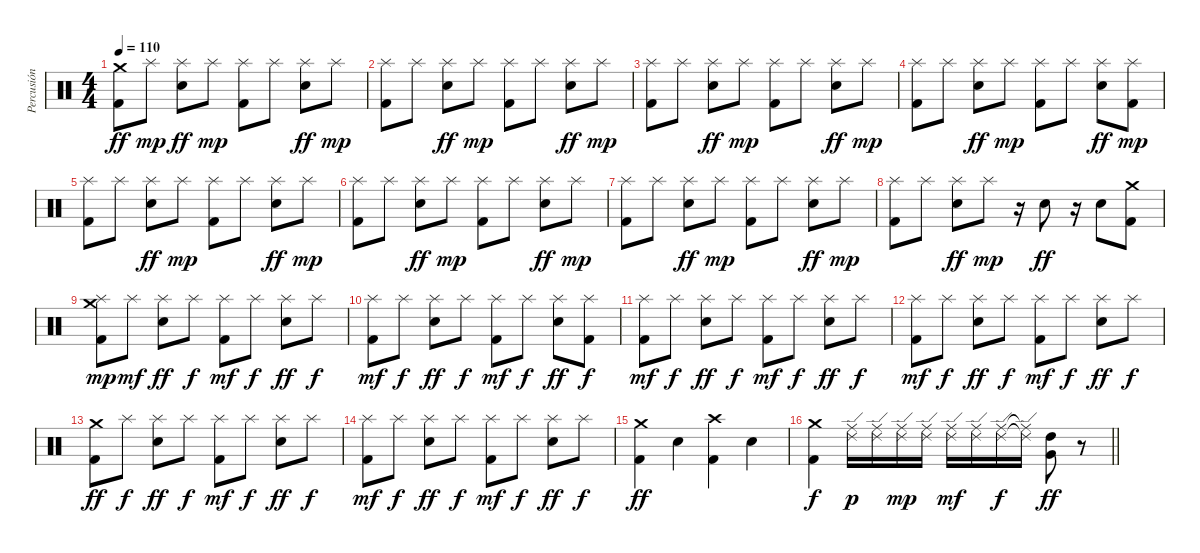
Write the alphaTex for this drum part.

\track ("Percusión" "Percusión") {instrument percussion}
\staff {score}
\articulation defaults
\ts (4 4)
\tempo 110
\clef neutral
\ks c
("Crash medium (hit)" "Kick (hit) 2").8{dy ff} "Splash (hit)".8{dy mp} ("Splash (hit)" "Electric Snare (hit)").8{dy ff} "Splash (hit)".8{dy mp} ("Splash (hit)" "Kick (hit) 2").8 "Splash (hit)".8 ("Splash (hit)" "Electric Snare (hit)").8{dy ff} "Splash (hit)".8{dy mp} |
("Splash (hit)" "Kick (hit) 2").8 "Splash (hit)".8 ("Splash (hit)" "Electric Snare (hit)").8{dy ff} "Splash (hit)".8{dy mp} ("Splash (hit)" "Kick (hit) 2").8 "Splash (hit)".8 ("Splash (hit)" "Electric Snare (hit)").8{dy ff} "Splash (hit)".8{dy mp} |
("Splash (hit)" "Kick (hit) 2").8 "Splash (hit)".8 ("Splash (hit)" "Electric Snare (hit)").8{dy ff} "Splash (hit)".8{dy mp} ("Splash (hit)" "Kick (hit) 2").8 "Splash (hit)".8 ("Splash (hit)" "Electric Snare (hit)").8{dy ff} "Splash (hit)".8{dy mp} |
("Splash (hit)" "Kick (hit) 2").8 "Splash (hit)".8 ("Splash (hit)" "Electric Snare (hit)").8{dy ff} "Splash (hit)".8{dy mp} ("Splash (hit)" "Kick (hit) 2").8 "Splash (hit)".8 ("Splash (hit)" "Electric Snare (hit)").8{dy ff} ("Splash (hit)" "Kick (hit) 2").8{dy mp} |
("Splash (hit)" "Kick (hit) 2").8 "Splash (hit)".8 ("Splash (hit)" "Electric Snare (hit)").8{dy ff} "Splash (hit)".8{dy mp} ("Splash (hit)" "Kick (hit) 2").8 "Splash (hit)".8 ("Splash (hit)" "Electric Snare (hit)").8{dy ff} "Splash (hit)".8{dy mp} |
("Splash (hit)" "Kick (hit) 2").8 "Splash (hit)".8 ("Splash (hit)" "Electric Snare (hit)").8{dy ff} "Splash (hit)".8{dy mp} ("Splash (hit)" "Kick (hit) 2").8 "Splash (hit)".8 ("Splash (hit)" "Electric Snare (hit)").8{dy ff} "Splash (hit)".8{dy mp} |
("Splash (hit)" "Kick (hit) 2").8 "Splash (hit)".8 ("Splash (hit)" "Electric Snare (hit)").8{dy ff} "Splash (hit)".8{dy mp} ("Splash (hit)" "Kick (hit) 2").8 "Splash (hit)".8 ("Splash (hit)" "Electric Snare (hit)").8{dy ff} "Splash (hit)".8{dy mp} |
("Splash (hit)" "Kick (hit) 2").8 "Splash (hit)".8 ("Splash (hit)" "Electric Snare (hit)").8{dy ff} "Splash (hit)".8{dy mp} r.16 "Electric Snare (hit)".8{dy ff} r.16 "Electric Snare (hit)".8 ("Crash medium (hit)" "Kick (hit) 2").8 |
("Crash medium (hit)" "Splash (hit)" "Kick (hit) 2").8{dy mp} "Splash (hit)".8{dy mf} ("Splash (hit)" "Electric Snare (hit)").8{dy ff} "Splash (hit)".8{dy f} ("Splash (hit)" "Kick (hit) 2").8{dy mf} "Splash (hit)".8{dy f} ("Splash (hit)" "Electric Snare (hit)").8{dy ff} "Splash (hit)".8{dy f} |
("Splash (hit)" "Kick (hit) 2").8{dy mf} "Splash (hit)".8{dy f} ("Splash (hit)" "Electric Snare (hit)").8{dy ff} "Splash (hit)".8{dy f} ("Splash (hit)" "Kick (hit) 2").8{dy mf} "Splash (hit)".8{dy f} ("Splash (hit)" "Electric Snare (hit)").8{dy ff} ("Splash (hit)" "Kick (hit) 2").8{dy f} |
("Splash (hit)" "Kick (hit) 2").8{dy mf} "Splash (hit)".8{dy f} ("Splash (hit)" "Electric Snare (hit)").8{dy ff} "Splash (hit)".8{dy f} ("Splash (hit)" "Kick (hit) 2").8{dy mf} "Splash (hit)".8{dy f} ("Splash (hit)" "Electric Snare (hit)").8{dy ff} "Splash (hit)".8{dy f} |
("Splash (hit)" "Kick (hit) 2").8{dy mf} "Splash (hit)".8{dy f} ("Splash (hit)" "Electric Snare (hit)").8{dy ff} "Splash (hit)".8{dy f} ("Splash (hit)" "Kick (hit) 2").8{dy mf} "Splash (hit)".8{dy f} ("Splash (hit)" "Electric Snare (hit)").8{dy ff} "Splash (hit)".8{dy f} |
("Crash medium (hit)" "Kick (hit) 2").8{dy ff} "Splash (hit)".8{dy f} ("Splash (hit)" "Electric Snare (hit)").8{dy ff} "Splash (hit)".8{dy f} ("Splash (hit)" "Kick (hit) 2").8{dy mf} "Splash (hit)".8{dy f} ("Splash (hit)" "Electric Snare (hit)").8{dy ff} "Splash (hit)".8{dy f} |
("Splash (hit)" "Kick (hit) 2").8{dy mf} "Splash (hit)".8{dy f} ("Splash (hit)" "Electric Snare (hit)").8{dy ff} "Splash (hit)".8{dy f} ("Splash (hit)" "Kick (hit) 2").8{dy mf} "Splash (hit)".8{dy f} ("Splash (hit)" "Electric Snare (hit)").8{dy ff} "Splash (hit)".8{dy f} |
("Crash medium (hit)" "Kick (hit) 2").4{dy ff} "Electric Snare (hit)".4 ("Crash high (hit)" "Kick (hit) 2").4 "Electric Snare (hit)".4 |
\barLineRight lightlight
("Crash medium (hit)" "Kick (hit) 2").4{dy f} ("Ride (edge) 2" "Ride (middle)").16{dy p} ("Ride (edge) 2" "Ride (middle)").16 ("Ride (edge) 2" "Ride (middle)").16{dy mp} ("Ride (edge) 2" "Ride (middle)").16 ("Ride (edge) 2" "Ride (middle)").16{dy mf} ("Ride (edge) 2" "Ride (middle)").16 ("Ride (edge) 2" "Ride (middle)").16{dy f} ("Ride (edge) 2"{t} "Ride (middle)"{t}).16 ("High Tom (hit)" "Very Low Tom (hit)").8{dy ff} r.8
